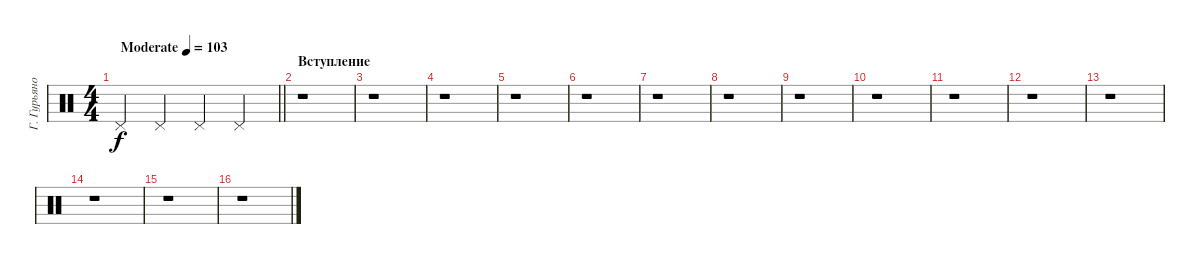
\track ("Г. Гурьянов" "Г. Гурьяно") {instrument percussion}
\staff
\articulation defaults
\ts (4 4)
\tempo (103 "Moderate")
\clef neutral
\barLineRight lightlight
\ks c "Pedal Hi-Hat (hit)".4{dy f} "Pedal Hi-Hat (hit)".4 "Pedal Hi-Hat (hit)".4 "Pedal Hi-Hat (hit)".4
|
\section ("" "Вступление")
r.1 |
r.1 |
r.1 |
r.1 |
r.1 |
r.1 |
r.1 |
r.1 |
r.1 |
r.1 |
r.1 |
r.1 |
r.1 |
r.1 |
r.1
